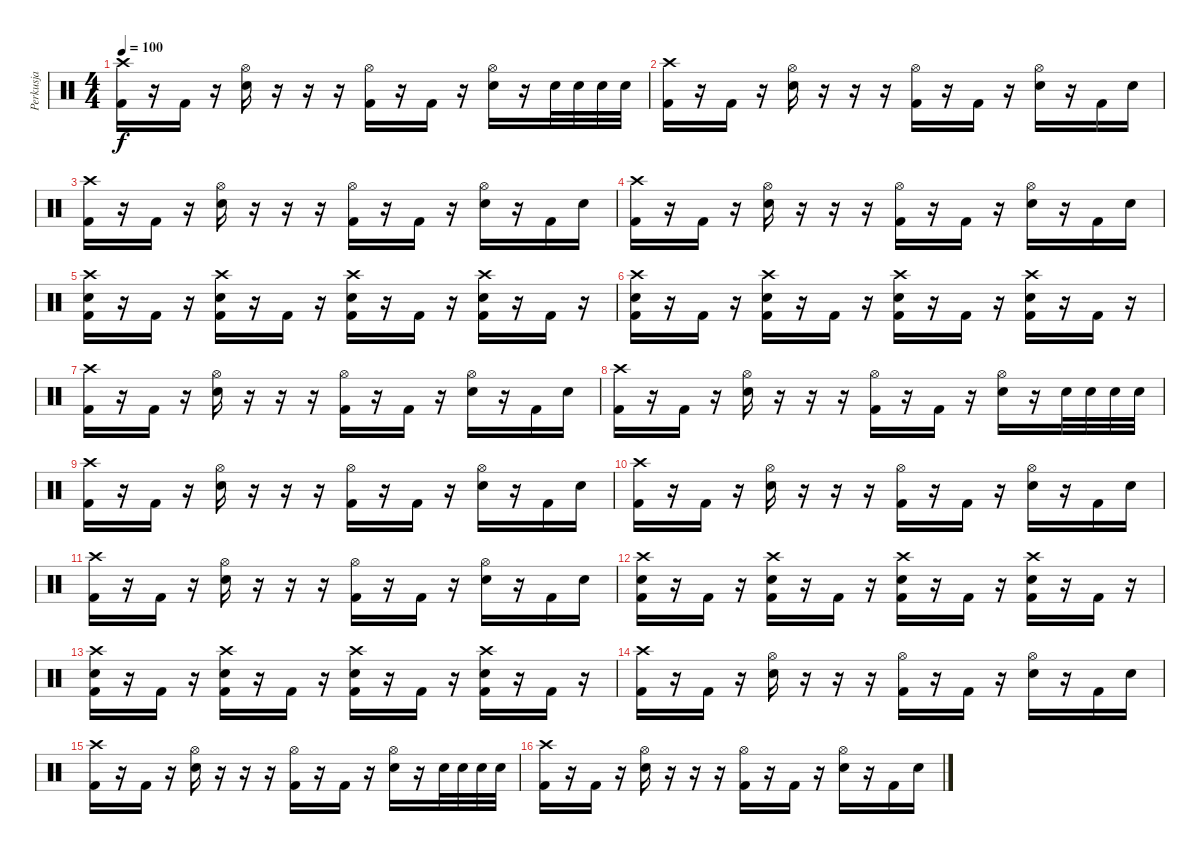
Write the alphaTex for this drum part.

\track ("Perkusja" "Perkusja") {instrument percussion}
\staff {score}
\articulation defaults
\ts (4 4)
\tempo 100
\clef neutral
\ks c
("Crash high (hit)" "Kick (hit) 2").16{dy f} r.16 "Kick (hit) 2".16 r.16 ("Hi-Hat (open)" "Electric Snare (hit)").16 r.16 r.16 r.16 ("Hi-Hat (open)" "Kick (hit) 2").16 r.16 "Kick (hit) 2".16 r.16 ("Hi-Hat (open)" "Electric Snare (hit)").16 r.16 "Electric Snare (hit)".32 "Electric Snare (hit)".32 "Electric Snare (hit)".32 "Electric Snare (hit)".32 |
("Crash high (hit)" "Kick (hit) 2").16 r.16 "Kick (hit) 2".16 r.16 ("Hi-Hat (open)" "Electric Snare (hit)").16 r.16 r.16 r.16 ("Hi-Hat (open)" "Kick (hit) 2").16 r.16 "Kick (hit) 2".16 r.16 ("Hi-Hat (open)" "Electric Snare (hit)").16 r.16 "Kick (hit) 2".16 "Electric Snare (hit)".16 |
("Crash high (hit)" "Kick (hit) 2").16 r.16 "Kick (hit) 2".16 r.16 ("Hi-Hat (open)" "Electric Snare (hit)").16 r.16 r.16 r.16 ("Hi-Hat (open)" "Kick (hit) 2").16 r.16 "Kick (hit) 2".16 r.16 ("Hi-Hat (open)" "Electric Snare (hit)").16 r.16 "Kick (hit) 2".16 "Electric Snare (hit)".16 |
("Crash high (hit)" "Kick (hit) 2").16 r.16 "Kick (hit) 2".16 r.16 ("Hi-Hat (open)" "Electric Snare (hit)").16 r.16 r.16 r.16 ("Hi-Hat (open)" "Kick (hit) 2").16 r.16 "Kick (hit) 2".16 r.16 ("Hi-Hat (open)" "Electric Snare (hit)").16 r.16 "Kick (hit) 2".16 "Electric Snare (hit)".16 |
("Crash high (hit)" "Electric Snare (hit)" "Kick (hit) 2").16 r.16 "Kick (hit) 2".16 r.16 ("Crash high (hit)" "Electric Snare (hit)" "Kick (hit) 2").16 r.16 "Kick (hit) 2".16 r.16 ("Crash high (hit)" "Electric Snare (hit)" "Kick (hit) 2").16 r.16 "Kick (hit) 2".16 r.16 ("Crash high (hit)" "Electric Snare (hit)" "Kick (hit) 2").16 r.16 "Kick (hit) 2".16 r.16 |
("Crash high (hit)" "Electric Snare (hit)" "Kick (hit) 2").16 r.16 "Kick (hit) 2".16 r.16 ("Crash high (hit)" "Electric Snare (hit)" "Kick (hit) 2").16 r.16 "Kick (hit) 2".16 r.16 ("Crash high (hit)" "Electric Snare (hit)" "Kick (hit) 2").16 r.16 "Kick (hit) 2".16 r.16 ("Crash high (hit)" "Electric Snare (hit)" "Kick (hit) 2").16 r.16 "Kick (hit) 2".16 r.16 |
("Crash high (hit)" "Kick (hit) 2").16 r.16 "Kick (hit) 2".16 r.16 ("Hi-Hat (open)" "Electric Snare (hit)").16 r.16 r.16 r.16 ("Hi-Hat (open)" "Kick (hit) 2").16 r.16 "Kick (hit) 2".16 r.16 ("Hi-Hat (open)" "Electric Snare (hit)").16 r.16 "Kick (hit) 2".16 "Electric Snare (hit)".16 |
("Crash high (hit)" "Kick (hit) 2").16 r.16 "Kick (hit) 2".16 r.16 ("Hi-Hat (open)" "Electric Snare (hit)").16 r.16 r.16 r.16 ("Hi-Hat (open)" "Kick (hit) 2").16 r.16 "Kick (hit) 2".16 r.16 ("Hi-Hat (open)" "Electric Snare (hit)").16 r.16 "Electric Snare (hit)".32 "Electric Snare (hit)".32 "Electric Snare (hit)".32 "Electric Snare (hit)".32 |
("Crash high (hit)" "Kick (hit) 2").16 r.16 "Kick (hit) 2".16 r.16 ("Hi-Hat (open)" "Electric Snare (hit)").16 r.16 r.16 r.16 ("Hi-Hat (open)" "Kick (hit) 2").16 r.16 "Kick (hit) 2".16 r.16 ("Hi-Hat (open)" "Electric Snare (hit)").16 r.16 "Kick (hit) 2".16 "Electric Snare (hit)".16 |
("Crash high (hit)" "Kick (hit) 2").16 r.16 "Kick (hit) 2".16 r.16 ("Hi-Hat (open)" "Electric Snare (hit)").16 r.16 r.16 r.16 ("Hi-Hat (open)" "Kick (hit) 2").16 r.16 "Kick (hit) 2".16 r.16 ("Hi-Hat (open)" "Electric Snare (hit)").16 r.16 "Kick (hit) 2".16 "Electric Snare (hit)".16 |
("Crash high (hit)" "Kick (hit) 2").16 r.16 "Kick (hit) 2".16 r.16 ("Hi-Hat (open)" "Electric Snare (hit)").16 r.16 r.16 r.16 ("Hi-Hat (open)" "Kick (hit) 2").16 r.16 "Kick (hit) 2".16 r.16 ("Hi-Hat (open)" "Electric Snare (hit)").16 r.16 "Kick (hit) 2".16 "Electric Snare (hit)".16 |
("Crash high (hit)" "Electric Snare (hit)" "Kick (hit) 2").16 r.16 "Kick (hit) 2".16 r.16 ("Crash high (hit)" "Electric Snare (hit)" "Kick (hit) 2").16 r.16 "Kick (hit) 2".16 r.16 ("Crash high (hit)" "Electric Snare (hit)" "Kick (hit) 2").16 r.16 "Kick (hit) 2".16 r.16 ("Crash high (hit)" "Electric Snare (hit)" "Kick (hit) 2").16 r.16 "Kick (hit) 2".16 r.16 |
("Crash high (hit)" "Electric Snare (hit)" "Kick (hit) 2").16 r.16 "Kick (hit) 2".16 r.16 ("Crash high (hit)" "Electric Snare (hit)" "Kick (hit) 2").16 r.16 "Kick (hit) 2".16 r.16 ("Crash high (hit)" "Electric Snare (hit)" "Kick (hit) 2").16 r.16 "Kick (hit) 2".16 r.16 ("Crash high (hit)" "Electric Snare (hit)" "Kick (hit) 2").16 r.16 "Kick (hit) 2".16 r.16 |
("Crash high (hit)" "Kick (hit) 2").16 r.16 "Kick (hit) 2".16 r.16 ("Hi-Hat (open)" "Electric Snare (hit)").16 r.16 r.16 r.16 ("Hi-Hat (open)" "Kick (hit) 2").16 r.16 "Kick (hit) 2".16 r.16 ("Hi-Hat (open)" "Electric Snare (hit)").16 r.16 "Kick (hit) 2".16 "Electric Snare (hit)".16 |
("Crash high (hit)" "Kick (hit) 2").16 r.16 "Kick (hit) 2".16 r.16 ("Hi-Hat (open)" "Electric Snare (hit)").16 r.16 r.16 r.16 ("Hi-Hat (open)" "Kick (hit) 2").16 r.16 "Kick (hit) 2".16 r.16 ("Hi-Hat (open)" "Electric Snare (hit)").16 r.16 "Electric Snare (hit)".32 "Electric Snare (hit)".32 "Electric Snare (hit)".32 "Electric Snare (hit)".32 |
("Crash high (hit)" "Kick (hit) 2").16 r.16 "Kick (hit) 2".16 r.16 ("Hi-Hat (open)" "Electric Snare (hit)").16 r.16 r.16 r.16 ("Hi-Hat (open)" "Kick (hit) 2").16 r.16 "Kick (hit) 2".16 r.16 ("Hi-Hat (open)" "Electric Snare (hit)").16 r.16 "Kick (hit) 2".16 "Electric Snare (hit)".16
